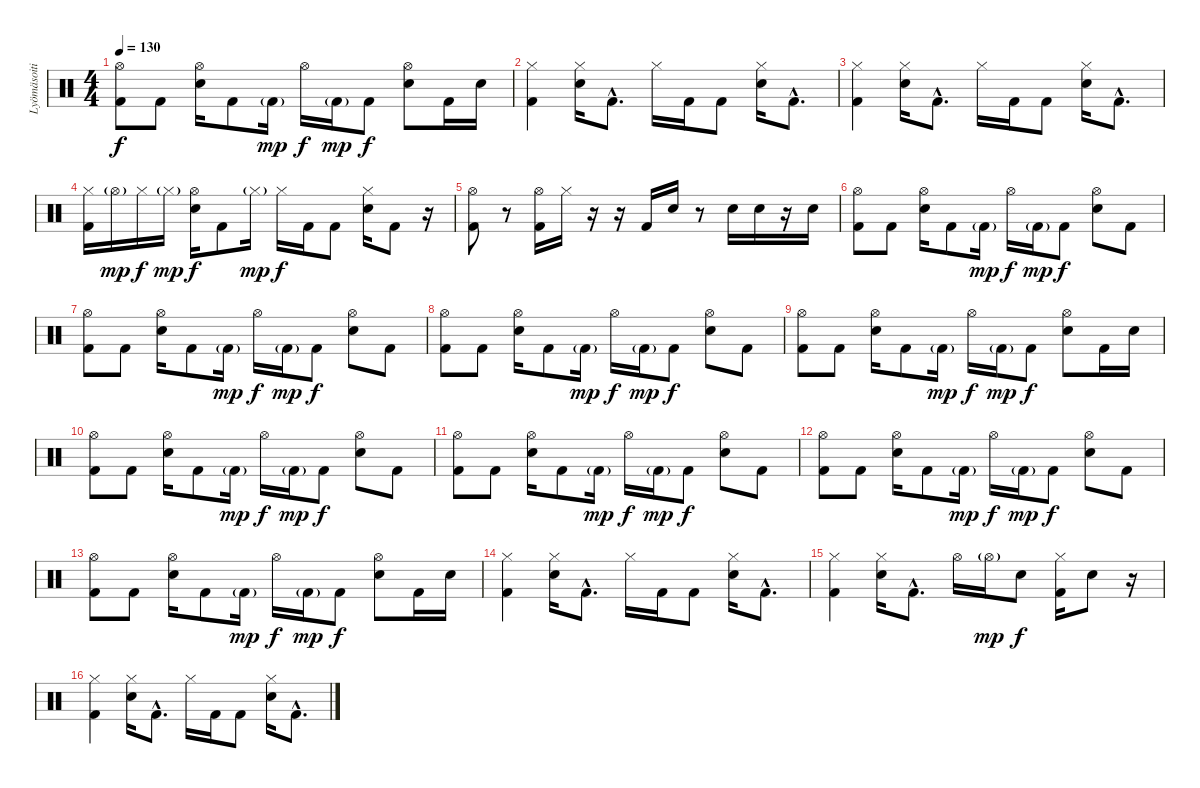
\track ("Lyömäsoitin" "Lyömäsoiti") {instrument percussion}
\staff {score}
\articulation defaults
\ts (4 4)
\tempo 130
\clef neutral
\ks c
("Hi-Hat (open)" "Kick (hit) 2").8{dy f} "Kick (hit) 2".8 ("Hi-Hat (open)" "Electric Snare (hit)").16 "Kick (hit) 2".8 "Kick (hit) 2"{g}.16{dy mp} "Hi-Hat (open)".16{dy f} "Kick (hit) 2"{g}.16{dy mp} "Kick (hit) 2".8{dy f} ("Electric Snare (hit)" "Hi-Hat (open)").8 "Kick (hit) 2".16 "Electric Snare (hit)".16 |
("Hi-Hat (closed)" "Kick (hit) 2").4 ("Hi-Hat (closed)" "Electric Snare (hit)").16 "Kick (hit) 2"{hac}.8{d} "Hi-Hat (closed)".16 "Kick (hit) 2".16 "Kick (hit) 2".8 ("Hi-Hat (closed)" "Electric Snare (hit)").16 "Kick (hit) 2"{hac}.8{d} |
("Hi-Hat (closed)" "Kick (hit) 2").4 ("Hi-Hat (closed)" "Electric Snare (hit)").16 "Kick (hit) 2"{hac}.8{d} "Hi-Hat (closed)".16 "Kick (hit) 2".16 "Kick (hit) 2".8 ("Hi-Hat (closed)" "Electric Snare (hit)").16 "Kick (hit) 2"{hac}.8{d} |
("Hi-Hat (closed)" "Kick (hit) 2").16 "Hi-Hat (open)"{g}.16{dy mp} "Hi-Hat (closed)".16{dy f} "Hi-Hat (closed)"{g}.16{dy mp} ("Hi-Hat (open)" "Electric Snare (hit)").16{dy f} "Kick (hit) 2".8 "Hi-Hat (closed)"{g}.16{dy mp} "Hi-Hat (closed)".16{dy f} "Kick (hit) 2".16 "Kick (hit) 2".8 ("Hi-Hat (closed)" "Electric Snare (hit)").16 "Kick (hit) 2".8 r.16 |
("Kick (hit) 2" "Hi-Hat (open)").8 r.8 ("Hi-Hat (open)" "Kick (hit) 2").16 "Hi-Hat (closed)".16 r.16 r.16 "Kick (hit) 2".16 "Electric Snare (hit)".16 r.8 "Electric Snare (hit)".16 "Electric Snare (hit)".16 r.16 "Electric Snare (hit)".16 |
("Hi-Hat (open)" "Kick (hit) 2").8 "Kick (hit) 2".8 ("Hi-Hat (open)" "Electric Snare (hit)").16 "Kick (hit) 2".8 "Kick (hit) 2"{g}.16{dy mp} "Hi-Hat (open)".16{dy f} "Kick (hit) 2"{g}.16{dy mp} "Kick (hit) 2".8{dy f} ("Electric Snare (hit)" "Hi-Hat (open)").8 "Kick (hit) 2".8 |
("Hi-Hat (open)" "Kick (hit) 2").8 "Kick (hit) 2".8 ("Hi-Hat (open)" "Electric Snare (hit)").16 "Kick (hit) 2".8 "Kick (hit) 2"{g}.16{dy mp} "Hi-Hat (open)".16{dy f} "Kick (hit) 2"{g}.16{dy mp} "Kick (hit) 2".8{dy f} ("Electric Snare (hit)" "Hi-Hat (open)").8 "Kick (hit) 2".8 |
("Hi-Hat (open)" "Kick (hit) 2").8 "Kick (hit) 2".8 ("Hi-Hat (open)" "Electric Snare (hit)").16 "Kick (hit) 2".8 "Kick (hit) 2"{g}.16{dy mp} "Hi-Hat (open)".16{dy f} "Kick (hit) 2"{g}.16{dy mp} "Kick (hit) 2".8{dy f} ("Electric Snare (hit)" "Hi-Hat (open)").8 "Kick (hit) 2".8 |
("Hi-Hat (open)" "Kick (hit) 2").8 "Kick (hit) 2".8 ("Hi-Hat (open)" "Electric Snare (hit)").16 "Kick (hit) 2".8 "Kick (hit) 2"{g}.16{dy mp} "Hi-Hat (open)".16{dy f} "Kick (hit) 2"{g}.16{dy mp} "Kick (hit) 2".8{dy f} ("Electric Snare (hit)" "Hi-Hat (open)").8 "Kick (hit) 2".16 "Electric Snare (hit)".16 |
("Hi-Hat (open)" "Kick (hit) 2").8 "Kick (hit) 2".8 ("Hi-Hat (open)" "Electric Snare (hit)").16 "Kick (hit) 2".8 "Kick (hit) 2"{g}.16{dy mp} "Hi-Hat (open)".16{dy f} "Kick (hit) 2"{g}.16{dy mp} "Kick (hit) 2".8{dy f} ("Electric Snare (hit)" "Hi-Hat (open)").8 "Kick (hit) 2".8 |
("Hi-Hat (open)" "Kick (hit) 2").8 "Kick (hit) 2".8 ("Hi-Hat (open)" "Electric Snare (hit)").16 "Kick (hit) 2".8 "Kick (hit) 2"{g}.16{dy mp} "Hi-Hat (open)".16{dy f} "Kick (hit) 2"{g}.16{dy mp} "Kick (hit) 2".8{dy f} ("Electric Snare (hit)" "Hi-Hat (open)").8 "Kick (hit) 2".8 |
("Hi-Hat (open)" "Kick (hit) 2").8 "Kick (hit) 2".8 ("Hi-Hat (open)" "Electric Snare (hit)").16 "Kick (hit) 2".8 "Kick (hit) 2"{g}.16{dy mp} "Hi-Hat (open)".16{dy f} "Kick (hit) 2"{g}.16{dy mp} "Kick (hit) 2".8{dy f} ("Electric Snare (hit)" "Hi-Hat (open)").8 "Kick (hit) 2".8 |
("Hi-Hat (open)" "Kick (hit) 2").8 "Kick (hit) 2".8 ("Hi-Hat (open)" "Electric Snare (hit)").16 "Kick (hit) 2".8 "Kick (hit) 2"{g}.16{dy mp} "Hi-Hat (open)".16{dy f} "Kick (hit) 2"{g}.16{dy mp} "Kick (hit) 2".8{dy f} ("Electric Snare (hit)" "Hi-Hat (open)").8 "Kick (hit) 2".16 "Electric Snare (hit)".16 |
("Hi-Hat (closed)" "Kick (hit) 2").4 ("Hi-Hat (closed)" "Electric Snare (hit)").16 "Kick (hit) 2"{hac}.8{d} "Hi-Hat (closed)".16 "Kick (hit) 2".16 "Kick (hit) 2".8 ("Hi-Hat (closed)" "Electric Snare (hit)").16 "Kick (hit) 2"{hac}.8{d} |
("Hi-Hat (closed)" "Kick (hit) 2").4 ("Hi-Hat (closed)" "Electric Snare (hit)").16 "Kick (hit) 2"{hac}.8{d} "Hi-Hat (open)".16 "Hi-Hat (open)"{g}.16{dy mp} "Electric Snare (hit)".8{dy f} ("Hi-Hat (closed)" "Kick (hit) 2").16 "Electric Snare (hit)".8 r.16 |
("Hi-Hat (closed)" "Kick (hit) 2").4 ("Hi-Hat (closed)" "Electric Snare (hit)").16 "Kick (hit) 2"{hac}.8{d} "Hi-Hat (closed)".16 "Kick (hit) 2".16 "Kick (hit) 2".8 ("Hi-Hat (closed)" "Electric Snare (hit)").16 "Kick (hit) 2"{hac}.8{d}
